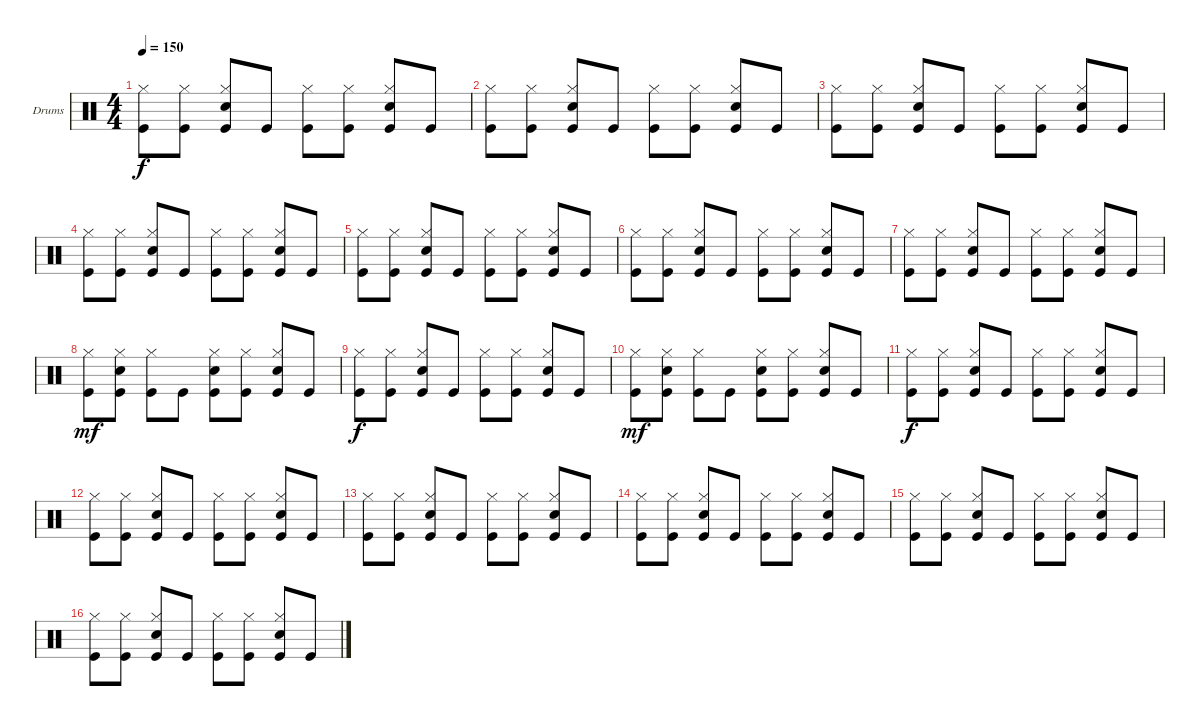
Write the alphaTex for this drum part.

\defaultSystemsLayout 4
\bracketExtendMode groupsimilarinstruments
\firstSystemTrackNameOrientation horizontal
\otherSystemsTrackNameOrientation horizontal
\track ("Drumkit" "Drums") {instrument percussion}
\staff {score}
\articulation defaults
\ts (4 4)
\tempo 150
\clef neutral
\ks c
("Kick (hit)" "Hi-Hat (closed)").8{dy f} ("Kick (hit)" "Hi-Hat (closed)").8 ("Snare (hit) 2" "Kick (hit)" "Hi-Hat (closed)").8 "Kick (hit)".8 ("Kick (hit)" "Hi-Hat (closed)").8 ("Kick (hit)" "Hi-Hat (closed)").8 ("Snare (hit) 2" "Kick (hit)" "Hi-Hat (closed)").8 "Kick (hit)".8 |
("Kick (hit)" "Hi-Hat (closed)").8 ("Kick (hit)" "Hi-Hat (closed)").8 ("Snare (hit) 2" "Kick (hit)" "Hi-Hat (closed)").8 "Kick (hit)".8 ("Kick (hit)" "Hi-Hat (closed)").8 ("Kick (hit)" "Hi-Hat (closed)").8 ("Snare (hit) 2" "Kick (hit)" "Hi-Hat (closed)").8 "Kick (hit)".8 |
("Kick (hit)" "Hi-Hat (closed)").8 ("Kick (hit)" "Hi-Hat (closed)").8 ("Snare (hit) 2" "Kick (hit)" "Hi-Hat (closed)").8 "Kick (hit)".8 ("Kick (hit)" "Hi-Hat (closed)").8 ("Kick (hit)" "Hi-Hat (closed)").8 ("Snare (hit) 2" "Kick (hit)" "Hi-Hat (closed)").8 "Kick (hit)".8 |
("Kick (hit)" "Hi-Hat (closed)").8 ("Kick (hit)" "Hi-Hat (closed)").8 ("Snare (hit) 2" "Kick (hit)" "Hi-Hat (closed)").8 "Kick (hit)".8 ("Kick (hit)" "Hi-Hat (closed)").8 ("Kick (hit)" "Hi-Hat (closed)").8 ("Snare (hit) 2" "Kick (hit)" "Hi-Hat (closed)").8 "Kick (hit)".8 |
("Kick (hit)" "Hi-Hat (closed)").8 ("Kick (hit)" "Hi-Hat (closed)").8 ("Snare (hit) 2" "Kick (hit)" "Hi-Hat (closed)").8 "Kick (hit)".8 ("Kick (hit)" "Hi-Hat (closed)").8 ("Kick (hit)" "Hi-Hat (closed)").8 ("Snare (hit) 2" "Kick (hit)" "Hi-Hat (closed)").8 "Kick (hit)".8 |
("Kick (hit)" "Hi-Hat (closed)").8 ("Kick (hit)" "Hi-Hat (closed)").8 ("Snare (hit) 2" "Kick (hit)" "Hi-Hat (closed)").8 "Kick (hit)".8 ("Kick (hit)" "Hi-Hat (closed)").8 ("Kick (hit)" "Hi-Hat (closed)").8 ("Snare (hit) 2" "Kick (hit)" "Hi-Hat (closed)").8 "Kick (hit)".8 |
("Kick (hit)" "Hi-Hat (closed)").8 ("Kick (hit)" "Hi-Hat (closed)").8 ("Snare (hit) 2" "Kick (hit)" "Hi-Hat (closed)").8 "Kick (hit)".8 ("Kick (hit)" "Hi-Hat (closed)").8 ("Kick (hit)" "Hi-Hat (closed)").8 ("Snare (hit) 2" "Kick (hit)" "Hi-Hat (closed)").8 "Kick (hit)".8 |
("Kick (hit)" "Hi-Hat (closed)").8{dy mf} ("Snare (hit) 2" "Kick (hit)" "Hi-Hat (closed)").8 ("Kick (hit)" "Hi-Hat (closed)").8 "Kick (hit)".8 ("Snare (hit) 2" "Kick (hit)" "Hi-Hat (closed)").8 ("Kick (hit)" "Hi-Hat (closed)").8 ("Snare (hit) 2" "Kick (hit)" "Hi-Hat (closed)").8 "Kick (hit)".8 |
("Kick (hit)" "Hi-Hat (closed)").8{dy f} ("Kick (hit)" "Hi-Hat (closed)").8 ("Snare (hit) 2" "Kick (hit)" "Hi-Hat (closed)").8 "Kick (hit)".8 ("Kick (hit)" "Hi-Hat (closed)").8 ("Kick (hit)" "Hi-Hat (closed)").8 ("Snare (hit) 2" "Kick (hit)" "Hi-Hat (closed)").8 "Kick (hit)".8 |
("Kick (hit)" "Hi-Hat (closed)").8{dy mf} ("Snare (hit) 2" "Kick (hit)" "Hi-Hat (closed)").8 ("Kick (hit)" "Hi-Hat (closed)").8 "Kick (hit)".8 ("Snare (hit) 2" "Kick (hit)" "Hi-Hat (closed)").8 ("Kick (hit)" "Hi-Hat (closed)").8 ("Snare (hit) 2" "Kick (hit)" "Hi-Hat (closed)").8 "Kick (hit)".8 |
("Kick (hit)" "Hi-Hat (closed)").8{dy f} ("Kick (hit)" "Hi-Hat (closed)").8 ("Snare (hit) 2" "Kick (hit)" "Hi-Hat (closed)").8 "Kick (hit)".8 ("Kick (hit)" "Hi-Hat (closed)").8 ("Kick (hit)" "Hi-Hat (closed)").8 ("Snare (hit) 2" "Kick (hit)" "Hi-Hat (closed)").8 "Kick (hit)".8 |
("Kick (hit)" "Hi-Hat (closed)").8 ("Kick (hit)" "Hi-Hat (closed)").8 ("Snare (hit) 2" "Kick (hit)" "Hi-Hat (closed)").8 "Kick (hit)".8 ("Kick (hit)" "Hi-Hat (closed)").8 ("Kick (hit)" "Hi-Hat (closed)").8 ("Snare (hit) 2" "Kick (hit)" "Hi-Hat (closed)").8 "Kick (hit)".8 |
("Kick (hit)" "Hi-Hat (closed)").8 ("Kick (hit)" "Hi-Hat (closed)").8 ("Snare (hit) 2" "Kick (hit)" "Hi-Hat (closed)").8 "Kick (hit)".8 ("Kick (hit)" "Hi-Hat (closed)").8 ("Kick (hit)" "Hi-Hat (closed)").8 ("Snare (hit) 2" "Kick (hit)" "Hi-Hat (closed)").8 "Kick (hit)".8 |
("Kick (hit)" "Hi-Hat (closed)").8 ("Kick (hit)" "Hi-Hat (closed)").8 ("Snare (hit) 2" "Kick (hit)" "Hi-Hat (closed)").8 "Kick (hit)".8 ("Kick (hit)" "Hi-Hat (closed)").8 ("Kick (hit)" "Hi-Hat (closed)").8 ("Snare (hit) 2" "Kick (hit)" "Hi-Hat (closed)").8 "Kick (hit)".8 |
("Kick (hit)" "Hi-Hat (closed)").8 ("Kick (hit)" "Hi-Hat (closed)").8 ("Snare (hit) 2" "Kick (hit)" "Hi-Hat (closed)").8 "Kick (hit)".8 ("Kick (hit)" "Hi-Hat (closed)").8 ("Kick (hit)" "Hi-Hat (closed)").8 ("Snare (hit) 2" "Kick (hit)" "Hi-Hat (closed)").8 "Kick (hit)".8 |
("Kick (hit)" "Hi-Hat (closed)").8 ("Kick (hit)" "Hi-Hat (closed)").8 ("Snare (hit) 2" "Kick (hit)" "Hi-Hat (closed)").8 "Kick (hit)".8 ("Kick (hit)" "Hi-Hat (closed)").8 ("Kick (hit)" "Hi-Hat (closed)").8 ("Snare (hit) 2" "Kick (hit)" "Hi-Hat (closed)").8 "Kick (hit)".8
